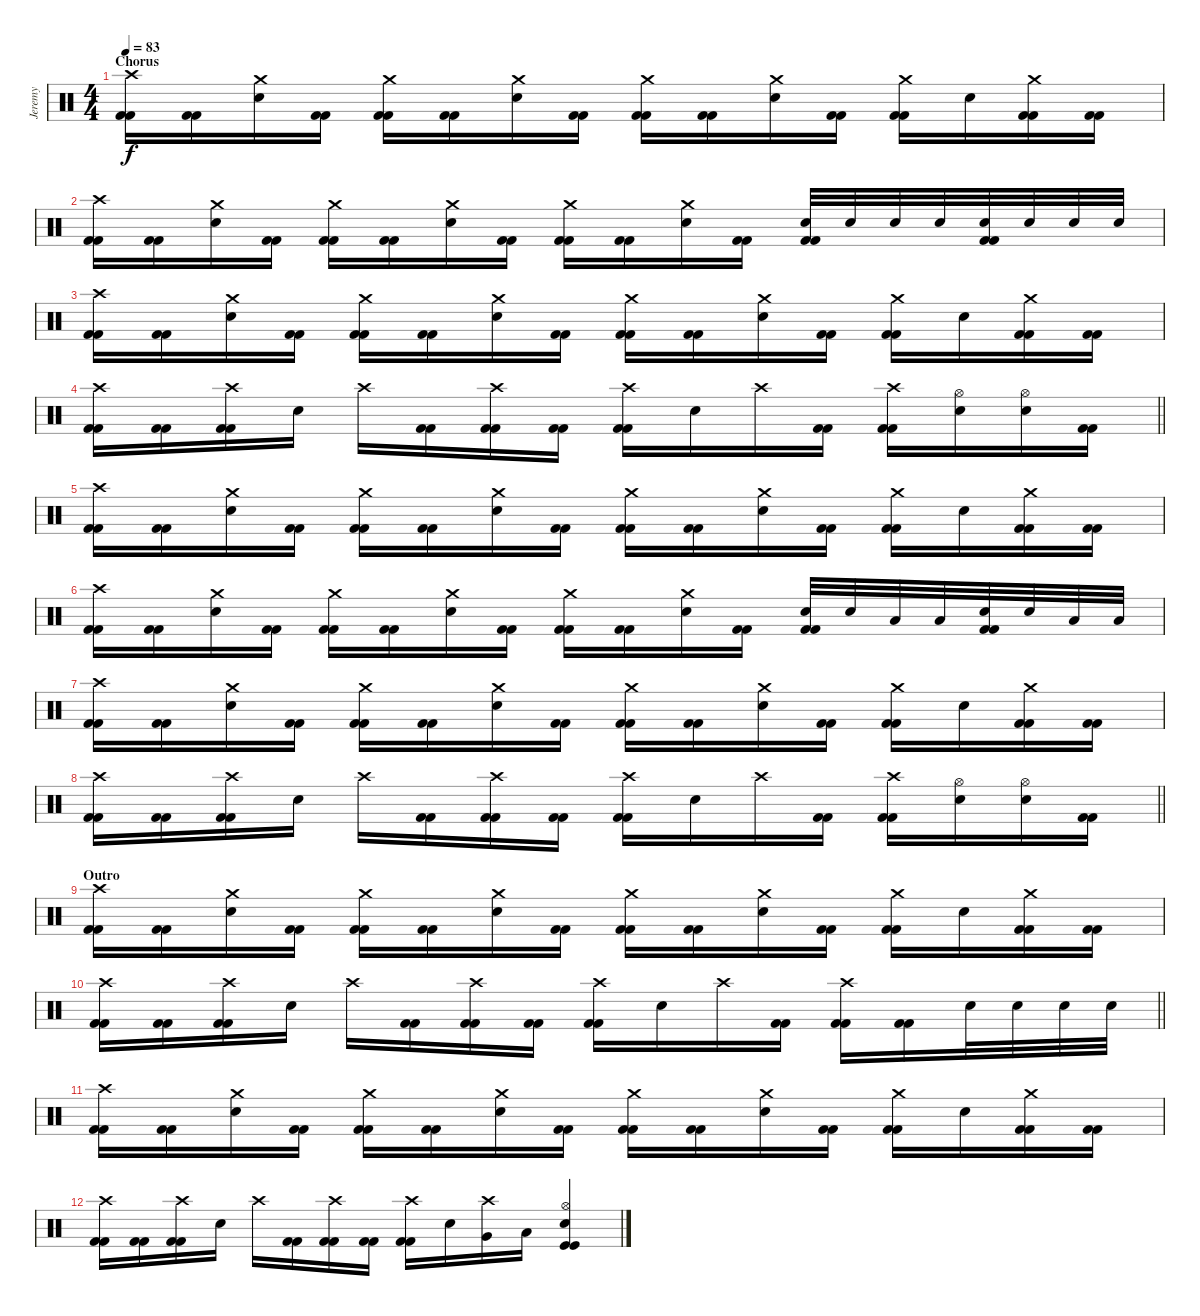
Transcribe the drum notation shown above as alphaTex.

\track ("Jeremy" "Jeremy") {instrument percussion}
\staff {score}
\articulation defaults
\ts (4 4)
\section ("" "Chorus")
\tempo 83
\clef neutral
\ks c
("Crash high (hit)" "Kick (hit) 2" "Kick (hit) 2").16{dy f} ("Kick (hit) 2" "Kick (hit) 2").16 ("Crash medium (hit)" "Electric Snare (hit)").16 ("Kick (hit) 2" "Kick (hit) 2").16 ("Crash medium (hit)" "Kick (hit) 2" "Kick (hit) 2").16 ("Kick (hit) 2" "Kick (hit) 2").16 ("Crash medium (hit)" "Electric Snare (hit)").16 ("Kick (hit) 2" "Kick (hit) 2").16 ("Crash medium (hit)" "Kick (hit) 2" "Kick (hit) 2").16 ("Kick (hit) 2" "Kick (hit) 2").16 ("Crash medium (hit)" "Electric Snare (hit)").16 ("Kick (hit) 2" "Kick (hit) 2").16 ("Crash medium (hit)" "Kick (hit) 2" "Kick (hit) 2").16 "Electric Snare (hit)".16 ("Crash medium (hit)" "Kick (hit) 2" "Kick (hit) 2").16 ("Kick (hit) 2" "Kick (hit) 2").16 |
("Crash high (hit)" "Kick (hit) 2" "Kick (hit) 2").16 ("Kick (hit) 2" "Kick (hit) 2").16 ("Crash medium (hit)" "Electric Snare (hit)").16 ("Kick (hit) 2" "Kick (hit) 2").16 ("Crash medium (hit)" "Kick (hit) 2" "Kick (hit) 2").16 ("Kick (hit) 2" "Kick (hit) 2").16 ("Crash medium (hit)" "Electric Snare (hit)").16 ("Kick (hit) 2" "Kick (hit) 2").16 ("Crash medium (hit)" "Kick (hit) 2" "Kick (hit) 2").16 ("Kick (hit) 2" "Kick (hit) 2").16 ("Crash medium (hit)" "Electric Snare (hit)").16 ("Kick (hit) 2" "Kick (hit) 2").16 ("Electric Snare (hit)" "Kick (hit) 2" "Kick (hit) 2").32 "Electric Snare (hit)".32 "Electric Snare (hit)".32 "Electric Snare (hit)".32 ("Electric Snare (hit)" "Kick (hit) 2" "Kick (hit) 2").32 "Electric Snare (hit)".32 "Electric Snare (hit)".32 "Electric Snare (hit)".32 |
("Crash high (hit)" "Kick (hit) 2" "Kick (hit) 2").16 ("Kick (hit) 2" "Kick (hit) 2").16 ("Crash medium (hit)" "Electric Snare (hit)").16 ("Kick (hit) 2" "Kick (hit) 2").16 ("Crash medium (hit)" "Kick (hit) 2" "Kick (hit) 2").16 ("Kick (hit) 2" "Kick (hit) 2").16 ("Crash medium (hit)" "Electric Snare (hit)").16 ("Kick (hit) 2" "Kick (hit) 2").16 ("Crash medium (hit)" "Kick (hit) 2" "Kick (hit) 2").16 ("Kick (hit) 2" "Kick (hit) 2").16 ("Crash medium (hit)" "Electric Snare (hit)").16 ("Kick (hit) 2" "Kick (hit) 2").16 ("Crash medium (hit)" "Kick (hit) 2" "Kick (hit) 2").16 "Electric Snare (hit)".16 ("Crash medium (hit)" "Kick (hit) 2" "Kick (hit) 2").16 ("Kick (hit) 2" "Kick (hit) 2").16 |
\barLineRight lightlight
("Crash high (hit)" "Kick (hit) 2" "Kick (hit) 2").16 ("Kick (hit) 2" "Kick (hit) 2").16 ("Crash high (hit)" "Kick (hit) 2" "Kick (hit) 2").16 "Electric Snare (hit)".16 "Crash high (hit)".16 ("Kick (hit) 2" "Kick (hit) 2").16 ("Crash high (hit)" "Kick (hit) 2" "Kick (hit) 2").16 ("Kick (hit) 2" "Kick (hit) 2").16 ("Crash high (hit)" "Kick (hit) 2" "Kick (hit) 2").16 "Electric Snare (hit)".16 "Crash high (hit)".16 ("Kick (hit) 2" "Kick (hit) 2").16 ("Crash high (hit)" "Kick (hit) 2" "Kick (hit) 2").16 ("Hi-Hat (open)" "Electric Snare (hit)").16 ("Hi-Hat (open)" "Electric Snare (hit)").16 ("Kick (hit) 2" "Kick (hit) 2").16 |
("Crash high (hit)" "Kick (hit) 2" "Kick (hit) 2").16 ("Kick (hit) 2" "Kick (hit) 2").16 ("Crash medium (hit)" "Electric Snare (hit)").16 ("Kick (hit) 2" "Kick (hit) 2").16 ("Crash medium (hit)" "Kick (hit) 2" "Kick (hit) 2").16 ("Kick (hit) 2" "Kick (hit) 2").16 ("Crash medium (hit)" "Electric Snare (hit)").16 ("Kick (hit) 2" "Kick (hit) 2").16 ("Crash medium (hit)" "Kick (hit) 2" "Kick (hit) 2").16 ("Kick (hit) 2" "Kick (hit) 2").16 ("Crash medium (hit)" "Electric Snare (hit)").16 ("Kick (hit) 2" "Kick (hit) 2").16 ("Crash medium (hit)" "Kick (hit) 2" "Kick (hit) 2").16 "Electric Snare (hit)".16 ("Crash medium (hit)" "Kick (hit) 2" "Kick (hit) 2").16 ("Kick (hit) 2" "Kick (hit) 2").16 |
("Crash high (hit)" "Kick (hit) 2" "Kick (hit) 2").16 ("Kick (hit) 2" "Kick (hit) 2").16 ("Crash medium (hit)" "Electric Snare (hit)").16 ("Kick (hit) 2" "Kick (hit) 2").16 ("Crash medium (hit)" "Kick (hit) 2" "Kick (hit) 2").16 ("Kick (hit) 2" "Kick (hit) 2").16 ("Crash medium (hit)" "Electric Snare (hit)").16 ("Kick (hit) 2" "Kick (hit) 2").16 ("Crash medium (hit)" "Kick (hit) 2" "Kick (hit) 2").16 ("Kick (hit) 2" "Kick (hit) 2").16 ("Crash medium (hit)" "Electric Snare (hit)").16 ("Kick (hit) 2" "Kick (hit) 2").16 ("Electric Snare (hit)" "Kick (hit) 2" "Kick (hit) 2").32 "Electric Snare (hit)".32 "Low Tom (hit)".32 "Low Tom (hit)".32 ("Electric Snare (hit)" "Kick (hit) 2" "Kick (hit) 2").32 "Electric Snare (hit)".32 "Low Tom (hit)".32 "Low Tom (hit)".32 |
("Crash high (hit)" "Kick (hit) 2" "Kick (hit) 2").16 ("Kick (hit) 2" "Kick (hit) 2").16 ("Crash medium (hit)" "Electric Snare (hit)").16 ("Kick (hit) 2" "Kick (hit) 2").16 ("Crash medium (hit)" "Kick (hit) 2" "Kick (hit) 2").16 ("Kick (hit) 2" "Kick (hit) 2").16 ("Crash medium (hit)" "Electric Snare (hit)").16 ("Kick (hit) 2" "Kick (hit) 2").16 ("Crash medium (hit)" "Kick (hit) 2" "Kick (hit) 2").16 ("Kick (hit) 2" "Kick (hit) 2").16 ("Crash medium (hit)" "Electric Snare (hit)").16 ("Kick (hit) 2" "Kick (hit) 2").16 ("Crash medium (hit)" "Kick (hit) 2" "Kick (hit) 2").16 "Electric Snare (hit)".16 ("Crash medium (hit)" "Kick (hit) 2" "Kick (hit) 2").16 ("Kick (hit) 2" "Kick (hit) 2").16 |
\barLineRight lightlight
("Crash high (hit)" "Kick (hit) 2" "Kick (hit) 2").16 ("Kick (hit) 2" "Kick (hit) 2").16 ("Crash high (hit)" "Kick (hit) 2" "Kick (hit) 2").16 "Electric Snare (hit)".16 "Crash high (hit)".16 ("Kick (hit) 2" "Kick (hit) 2").16 ("Crash high (hit)" "Kick (hit) 2" "Kick (hit) 2").16 ("Kick (hit) 2" "Kick (hit) 2").16 ("Crash high (hit)" "Kick (hit) 2" "Kick (hit) 2").16 "Electric Snare (hit)".16 "Crash high (hit)".16 ("Kick (hit) 2" "Kick (hit) 2").16 ("Crash high (hit)" "Kick (hit) 2" "Kick (hit) 2").16 ("Hi-Hat (open)" "Electric Snare (hit)").16 ("Hi-Hat (open)" "Electric Snare (hit)").16 ("Kick (hit) 2" "Kick (hit) 2").16 |
\section ("" "Outro")
("Crash high (hit)" "Kick (hit) 2" "Kick (hit) 2").16 ("Kick (hit) 2" "Kick (hit) 2").16 ("Crash medium (hit)" "Electric Snare (hit)").16 ("Kick (hit) 2" "Kick (hit) 2").16 ("Crash medium (hit)" "Kick (hit) 2" "Kick (hit) 2").16 ("Kick (hit) 2" "Kick (hit) 2").16 ("Crash medium (hit)" "Electric Snare (hit)").16 ("Kick (hit) 2" "Kick (hit) 2").16 ("Crash medium (hit)" "Kick (hit) 2" "Kick (hit) 2").16 ("Kick (hit) 2" "Kick (hit) 2").16 ("Crash medium (hit)" "Electric Snare (hit)").16 ("Kick (hit) 2" "Kick (hit) 2").16 ("Crash medium (hit)" "Kick (hit) 2" "Kick (hit) 2").16 "Electric Snare (hit)".16 ("Crash medium (hit)" "Kick (hit) 2" "Kick (hit) 2").16 ("Kick (hit) 2" "Kick (hit) 2").16 |
\barLineRight lightlight
("Crash high (hit)" "Kick (hit) 2" "Kick (hit) 2").16 ("Kick (hit) 2" "Kick (hit) 2").16 ("Crash high (hit)" "Kick (hit) 2" "Kick (hit) 2").16 "Electric Snare (hit)".16 "Crash high (hit)".16 ("Kick (hit) 2" "Kick (hit) 2").16 ("Crash high (hit)" "Kick (hit) 2" "Kick (hit) 2").16 ("Kick (hit) 2" "Kick (hit) 2").16 ("Crash high (hit)" "Kick (hit) 2" "Kick (hit) 2").16 "Electric Snare (hit)".16 "Crash high (hit)".16 ("Kick (hit) 2" "Kick (hit) 2").16 ("Crash high (hit)" "Kick (hit) 2" "Kick (hit) 2").16 ("Kick (hit) 2" "Kick (hit) 2").16 "Electric Snare (hit)".32 "Electric Snare (hit)".32 "Electric Snare (hit)".32 "Electric Snare (hit)".32 |
("Crash high (hit)" "Kick (hit) 2" "Kick (hit) 2").16 ("Kick (hit) 2" "Kick (hit) 2").16 ("Crash medium (hit)" "Electric Snare (hit)").16 ("Kick (hit) 2" "Kick (hit) 2").16 ("Crash medium (hit)" "Kick (hit) 2" "Kick (hit) 2").16 ("Kick (hit) 2" "Kick (hit) 2").16 ("Crash medium (hit)" "Electric Snare (hit)").16 ("Kick (hit) 2" "Kick (hit) 2").16 ("Crash medium (hit)" "Kick (hit) 2" "Kick (hit) 2").16 ("Kick (hit) 2" "Kick (hit) 2").16 ("Crash medium (hit)" "Electric Snare (hit)").16 ("Kick (hit) 2" "Kick (hit) 2").16 ("Crash medium (hit)" "Kick (hit) 2" "Kick (hit) 2").16 "Electric Snare (hit)".16 ("Crash medium (hit)" "Kick (hit) 2" "Kick (hit) 2").16 ("Kick (hit) 2" "Kick (hit) 2").16 |
("Crash high (hit)" "Kick (hit) 2" "Kick (hit) 2").16 ("Kick (hit) 2" "Kick (hit) 2").16 ("Crash high (hit)" "Kick (hit) 2" "Kick (hit) 2").16 "Electric Snare (hit)".16 "Crash high (hit)".16 ("Kick (hit) 2" "Kick (hit) 2").16 ("Crash high (hit)" "Kick (hit) 2" "Kick (hit) 2").16 ("Kick (hit) 2" "Kick (hit) 2").16 ("Crash high (hit)" "Kick (hit) 2" "Kick (hit) 2").16 "Electric Snare (hit)".16 ("Crash high (hit)" "Very Low Tom (hit)").16 "Low Floor Tom (hit)".16 ("Hi-Hat (open)" "Electric Snare (hit)" "Kick (hit)" "Kick (hit)").4
